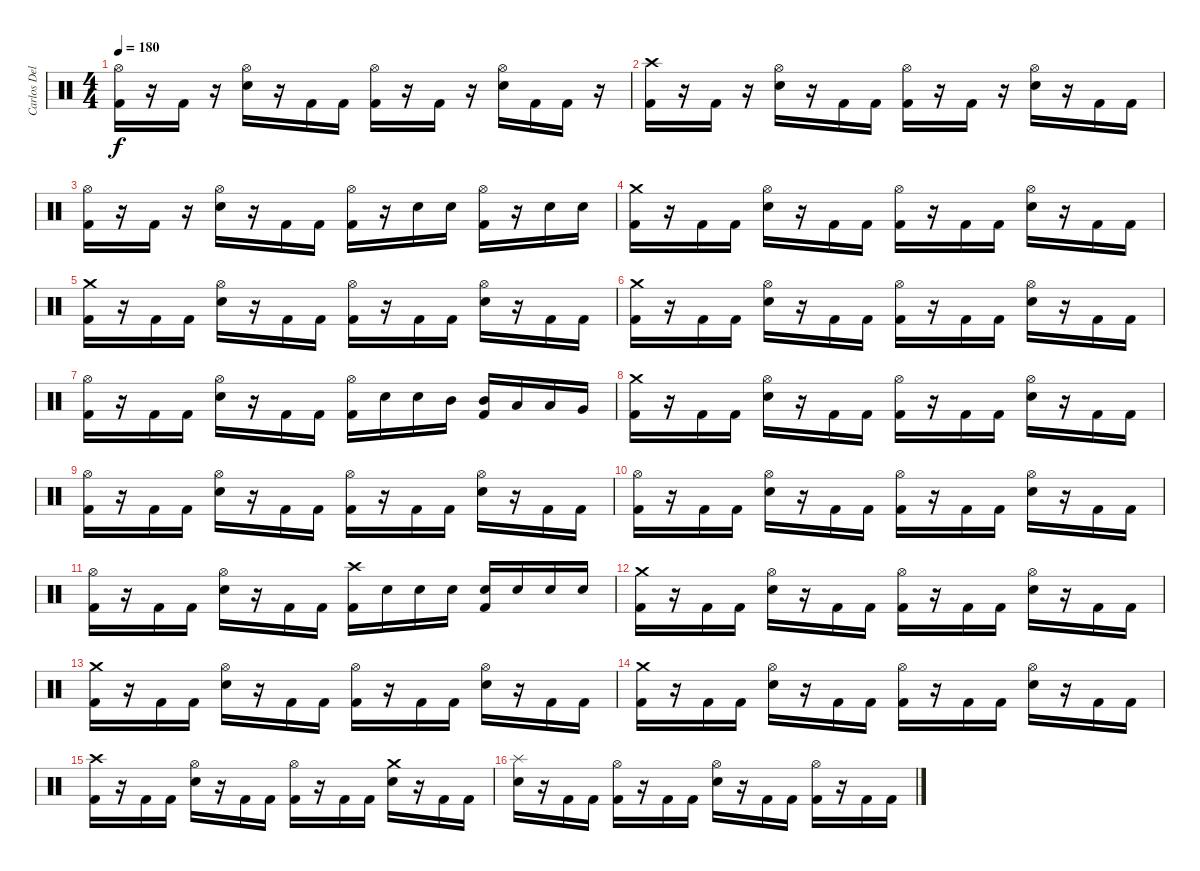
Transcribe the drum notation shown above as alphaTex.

\track ("Carlos Delgado" "Carlos Del") {instrument percussion}
\staff {score}
\articulation defaults
\ts (4 4)
\tempo 180
\clef neutral
\ks c
("Kick (hit) 2" "Hi-Hat (open)").16{dy f} r.16 "Kick (hit) 2".16 r.16 ("Hi-Hat (open)" "Electric Snare (hit)").16 r.16 "Kick (hit) 2".16 "Kick (hit) 2".16 ("Hi-Hat (open)" "Kick (hit) 2").16 r.16 "Kick (hit) 2".16 r.16 ("Electric Snare (hit)" "Hi-Hat (open)").16 "Kick (hit) 2".16 "Kick (hit) 2".16 r.16 |
("Crash high (hit)" "Kick (hit) 2").16 r.16 "Kick (hit) 2".16 r.16 ("Hi-Hat (open)" "Electric Snare (hit)").16 r.16 "Kick (hit) 2".16 "Kick (hit) 2".16 ("Kick (hit) 2" "Hi-Hat (open)").16 r.16 "Kick (hit) 2".16 r.16 ("Electric Snare (hit)" "Hi-Hat (open)").16 r.16 "Kick (hit) 2".16 "Kick (hit) 2".16 |
("Kick (hit) 2" "Hi-Hat (open)").16 r.16 "Kick (hit) 2".16 r.16 ("Hi-Hat (open)" "Electric Snare (hit)").16 r.16 "Kick (hit) 2".16 "Kick (hit) 2".16 ("Hi-Hat (open)" "Kick (hit) 2").16 r.16 "Electric Snare (hit)".16 "Electric Snare (hit)".16 ("Kick (hit) 2" "Hi-Hat (open)").16 r.16 "Electric Snare (hit)".16 "Electric Snare (hit)".16 |
("Kick (hit) 2" "Crash medium (hit)").16 r.16 "Kick (hit) 2".16 "Kick (hit) 2".16 ("Hi-Hat (open)" "Electric Snare (hit)").16 r.16 "Kick (hit) 2".16 "Kick (hit) 2".16 ("Hi-Hat (open)" "Kick (hit) 2").16 r.16 "Kick (hit) 2".16 "Kick (hit) 2".16 ("Hi-Hat (open)" "Electric Snare (hit)").16 r.16 "Kick (hit) 2".16 "Kick (hit) 2".16 |
("Kick (hit) 2" "Crash medium (hit)").16 r.16 "Kick (hit) 2".16 "Kick (hit) 2".16 ("Hi-Hat (open)" "Electric Snare (hit)").16 r.16 "Kick (hit) 2".16 "Kick (hit) 2".16 ("Hi-Hat (open)" "Kick (hit) 2").16 r.16 "Kick (hit) 2".16 "Kick (hit) 2".16 ("Hi-Hat (open)" "Electric Snare (hit)").16 r.16 "Kick (hit) 2".16 "Kick (hit) 2".16 |
("Kick (hit) 2" "Crash medium (hit)").16 r.16 "Kick (hit) 2".16 "Kick (hit) 2".16 ("Hi-Hat (open)" "Electric Snare (hit)").16 r.16 "Kick (hit) 2".16 "Kick (hit) 2".16 ("Hi-Hat (open)" "Kick (hit) 2").16 r.16 "Kick (hit) 2".16 "Kick (hit) 2".16 ("Hi-Hat (open)" "Electric Snare (hit)").16 r.16 "Kick (hit) 2".16 "Kick (hit) 2".16 |
("Kick (hit) 2" "Hi-Hat (open)").16 r.16 "Kick (hit) 2".16 "Kick (hit) 2".16 ("Hi-Hat (open)" "Electric Snare (hit)").16 r.16 "Kick (hit) 2".16 "Kick (hit) 2".16 ("Hi-Hat (open)" "Kick (hit) 2").16 "Electric Snare (hit)".16 "Electric Snare (hit)".16 "Mid Tom (hit)".16 ("Kick (hit) 2" "Mid Tom (hit)").16 "Low Tom (hit)".16 "Low Tom (hit)".16 "Very Low Tom (hit)".16 |
("Kick (hit) 2" "Crash medium (hit)").16 r.16 "Kick (hit) 2".16 "Kick (hit) 2".16 ("Hi-Hat (open)" "Electric Snare (hit)").16 r.16 "Kick (hit) 2".16 "Kick (hit) 2".16 ("Hi-Hat (open)" "Kick (hit) 2").16 r.16 "Kick (hit) 2".16 "Kick (hit) 2".16 ("Hi-Hat (open)" "Electric Snare (hit)").16 r.16 "Kick (hit) 2".16 "Kick (hit) 2".16 |
("Kick (hit) 2" "Hi-Hat (open)").16 r.16 "Kick (hit) 2".16 "Kick (hit) 2".16 ("Hi-Hat (open)" "Electric Snare (hit)").16 r.16 "Kick (hit) 2".16 "Kick (hit) 2".16 ("Hi-Hat (open)" "Kick (hit) 2").16 r.16 "Kick (hit) 2".16 "Kick (hit) 2".16 ("Hi-Hat (open)" "Electric Snare (hit)").16 r.16 "Kick (hit) 2".16 "Kick (hit) 2".16 |
("Kick (hit) 2" "Hi-Hat (open)").16 r.16 "Kick (hit) 2".16 "Kick (hit) 2".16 ("Hi-Hat (open)" "Electric Snare (hit)").16 r.16 "Kick (hit) 2".16 "Kick (hit) 2".16 ("Hi-Hat (open)" "Kick (hit) 2").16 r.16 "Kick (hit) 2".16 "Kick (hit) 2".16 ("Hi-Hat (open)" "Electric Snare (hit)").16 r.16 "Kick (hit) 2".16 "Kick (hit) 2".16 |
("Kick (hit) 2" "Hi-Hat (open)").16 r.16 "Kick (hit) 2".16 "Kick (hit) 2".16 ("Hi-Hat (open)" "Electric Snare (hit)").16 r.16 "Kick (hit) 2".16 "Kick (hit) 2".16 ("Crash high (hit)" "Kick (hit) 2").16 "Electric Snare (hit)".16 "Electric Snare (hit)".16 "Electric Snare (hit)".16 ("Kick (hit) 2" "Electric Snare (hit)").16 "Electric Snare (hit)".16 "Electric Snare (hit)".16 "Electric Snare (hit)".16 |
("Kick (hit) 2" "Crash medium (hit)").16 r.16 "Kick (hit) 2".16 "Kick (hit) 2".16 ("Hi-Hat (open)" "Electric Snare (hit)").16 r.16 "Kick (hit) 2".16 "Kick (hit) 2".16 ("Hi-Hat (open)" "Kick (hit) 2").16 r.16 "Kick (hit) 2".16 "Kick (hit) 2".16 ("Hi-Hat (open)" "Electric Snare (hit)").16 r.16 "Kick (hit) 2".16 "Kick (hit) 2".16 |
("Kick (hit) 2" "Crash medium (hit)").16 r.16 "Kick (hit) 2".16 "Kick (hit) 2".16 ("Hi-Hat (open)" "Electric Snare (hit)").16 r.16 "Kick (hit) 2".16 "Kick (hit) 2".16 ("Hi-Hat (open)" "Kick (hit) 2").16 r.16 "Kick (hit) 2".16 "Kick (hit) 2".16 ("Hi-Hat (open)" "Electric Snare (hit)").16 r.16 "Kick (hit) 2".16 "Kick (hit) 2".16 |
("Kick (hit) 2" "Crash medium (hit)").16 r.16 "Kick (hit) 2".16 "Kick (hit) 2".16 ("Hi-Hat (open)" "Electric Snare (hit)").16 r.16 "Kick (hit) 2".16 "Kick (hit) 2".16 ("Hi-Hat (open)" "Kick (hit) 2").16 r.16 "Kick (hit) 2".16 "Kick (hit) 2".16 ("Hi-Hat (open)" "Electric Snare (hit)").16 r.16 "Kick (hit) 2".16 "Kick (hit) 2".16 |
("Kick (hit) 2" "Crash high (hit)").16 r.16 "Kick (hit) 2".16 "Kick (hit) 2".16 ("Hi-Hat (open)" "Electric Snare (hit)").16 r.16 "Kick (hit) 2".16 "Kick (hit) 2".16 ("Hi-Hat (open)" "Kick (hit) 2").16 r.16 "Kick (hit) 2".16 "Kick (hit) 2".16 ("Crash medium (hit)" "Electric Snare (hit)").16 r.16 "Kick (hit) 2".16 "Kick (hit) 2".16 |
("Electric Snare (hit)" "Splash (hit)").16 r.16 "Kick (hit) 2".16 "Kick (hit) 2".16 ("Hi-Hat (open)" "Kick (hit) 2").16 r.16 "Kick (hit) 2".16 "Kick (hit) 2".16 ("Hi-Hat (open)" "Electric Snare (hit)").16 r.16 "Kick (hit) 2".16 "Kick (hit) 2".16 ("Hi-Hat (open)" "Kick (hit) 2").16 r.16 "Kick (hit) 2".16 "Kick (hit) 2".16
